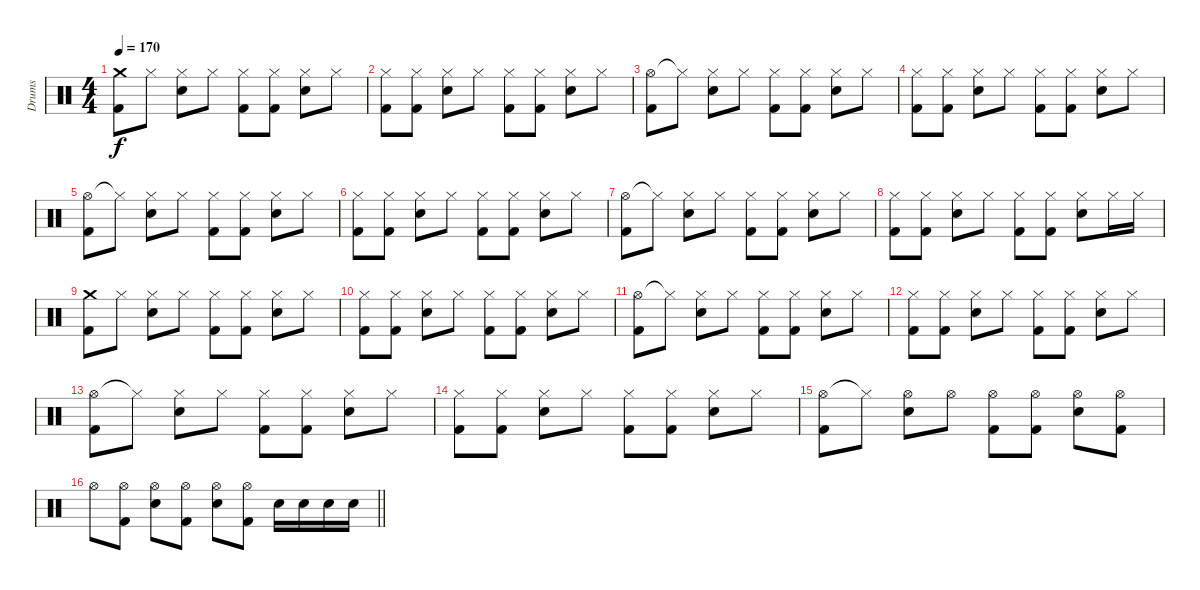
\track ("Drums" "Drums") {instrument percussion}
\staff {score}
\articulation defaults
\ts (4 4)
\tempo 170
\clef neutral
\ks c
("Crash medium (hit)" "Kick (hit) 2").8{dy f} "Hi-Hat (closed)".8 ("Hi-Hat (closed)" "Electric Snare (hit)").8 "Hi-Hat (closed)".8 ("Hi-Hat (closed)" "Kick (hit) 2").8 ("Hi-Hat (closed)" "Kick (hit) 2").8 ("Hi-Hat (closed)" "Electric Snare (hit)").8 "Hi-Hat (closed)".8 |
("Hi-Hat (closed)" "Kick (hit) 2").8 ("Hi-Hat (closed)" "Kick (hit) 2").8 ("Hi-Hat (closed)" "Electric Snare (hit)").8 "Hi-Hat (closed)".8 ("Hi-Hat (closed)" "Kick (hit) 2").8 ("Hi-Hat (closed)" "Kick (hit) 2").8 ("Hi-Hat (closed)" "Electric Snare (hit)").8 "Hi-Hat (closed)".8 |
("Hi-Hat (open)" "Kick (hit) 2").8 "Hi-Hat (closed)"{t}.8 ("Hi-Hat (closed)" "Electric Snare (hit)").8 "Hi-Hat (closed)".8 ("Hi-Hat (closed)" "Kick (hit) 2").8 ("Hi-Hat (closed)" "Kick (hit) 2").8 ("Hi-Hat (closed)" "Electric Snare (hit)").8 "Hi-Hat (closed)".8 |
("Hi-Hat (closed)" "Kick (hit) 2").8 ("Hi-Hat (closed)" "Kick (hit) 2").8 ("Hi-Hat (closed)" "Electric Snare (hit)").8 "Hi-Hat (closed)".8 ("Hi-Hat (closed)" "Kick (hit) 2").8 ("Hi-Hat (closed)" "Kick (hit) 2").8 ("Hi-Hat (closed)" "Electric Snare (hit)").8 "Hi-Hat (closed)".8 |
("Hi-Hat (open)" "Kick (hit) 2").8 "Hi-Hat (closed)"{t}.8 ("Hi-Hat (closed)" "Electric Snare (hit)").8 "Hi-Hat (closed)".8 ("Hi-Hat (closed)" "Kick (hit) 2").8 ("Hi-Hat (closed)" "Kick (hit) 2").8 ("Hi-Hat (closed)" "Electric Snare (hit)").8 "Hi-Hat (closed)".8 |
("Hi-Hat (closed)" "Kick (hit) 2").8 ("Hi-Hat (closed)" "Kick (hit) 2").8 ("Hi-Hat (closed)" "Electric Snare (hit)").8 "Hi-Hat (closed)".8 ("Hi-Hat (closed)" "Kick (hit) 2").8 ("Hi-Hat (closed)" "Kick (hit) 2").8 ("Hi-Hat (closed)" "Electric Snare (hit)").8 "Hi-Hat (closed)".8 |
("Hi-Hat (open)" "Kick (hit) 2").8 "Hi-Hat (closed)"{t}.8 ("Hi-Hat (closed)" "Electric Snare (hit)").8 "Hi-Hat (closed)".8 ("Hi-Hat (closed)" "Kick (hit) 2").8 ("Hi-Hat (closed)" "Kick (hit) 2").8 ("Hi-Hat (closed)" "Electric Snare (hit)").8 "Hi-Hat (closed)".8 |
("Hi-Hat (closed)" "Kick (hit) 2").8 ("Hi-Hat (closed)" "Kick (hit) 2").8 ("Hi-Hat (closed)" "Electric Snare (hit)").8 "Hi-Hat (closed)".8 ("Hi-Hat (closed)" "Kick (hit) 2").8 ("Hi-Hat (closed)" "Kick (hit) 2").8 ("Hi-Hat (closed)" "Electric Snare (hit)").8 "Hi-Hat (closed)".16 "Hi-Hat (closed)".16 |
("Crash medium (hit)" "Kick (hit) 2").8 "Hi-Hat (closed)".8 ("Hi-Hat (closed)" "Electric Snare (hit)").8 "Hi-Hat (closed)".8 ("Hi-Hat (closed)" "Kick (hit) 2").8 ("Hi-Hat (closed)" "Kick (hit) 2").8 ("Hi-Hat (closed)" "Electric Snare (hit)").8 "Hi-Hat (closed)".8 |
("Hi-Hat (closed)" "Kick (hit) 2").8 ("Hi-Hat (closed)" "Kick (hit) 2").8 ("Hi-Hat (closed)" "Electric Snare (hit)").8 "Hi-Hat (closed)".8 ("Hi-Hat (closed)" "Kick (hit) 2").8 ("Hi-Hat (closed)" "Kick (hit) 2").8 ("Hi-Hat (closed)" "Electric Snare (hit)").8 "Hi-Hat (closed)".8 |
("Hi-Hat (open)" "Kick (hit) 2").8 "Hi-Hat (closed)"{t}.8 ("Hi-Hat (closed)" "Electric Snare (hit)").8 "Hi-Hat (closed)".8 ("Hi-Hat (closed)" "Kick (hit) 2").8 ("Hi-Hat (closed)" "Kick (hit) 2").8 ("Hi-Hat (closed)" "Electric Snare (hit)").8 "Hi-Hat (closed)".8 |
("Hi-Hat (closed)" "Kick (hit) 2").8 ("Hi-Hat (closed)" "Kick (hit) 2").8 ("Hi-Hat (closed)" "Electric Snare (hit)").8 "Hi-Hat (closed)".8 ("Hi-Hat (closed)" "Kick (hit) 2").8 ("Hi-Hat (closed)" "Kick (hit) 2").8 ("Hi-Hat (closed)" "Electric Snare (hit)").8 "Hi-Hat (closed)".8 |
("Hi-Hat (open)" "Kick (hit) 2").8 "Hi-Hat (closed)"{t}.8 ("Hi-Hat (closed)" "Electric Snare (hit)").8 "Hi-Hat (closed)".8 ("Hi-Hat (closed)" "Kick (hit) 2").8 ("Hi-Hat (closed)" "Kick (hit) 2").8 ("Hi-Hat (closed)" "Electric Snare (hit)").8 "Hi-Hat (closed)".8 |
("Hi-Hat (closed)" "Kick (hit) 2").8 ("Hi-Hat (closed)" "Kick (hit) 2").8 ("Hi-Hat (closed)" "Electric Snare (hit)").8 "Hi-Hat (closed)".8 ("Hi-Hat (closed)" "Kick (hit) 2").8 ("Hi-Hat (closed)" "Kick (hit) 2").8 ("Hi-Hat (closed)" "Electric Snare (hit)").8 "Hi-Hat (closed)".8 |
("Hi-Hat (open)" "Kick (hit) 2").8 "Hi-Hat (closed)"{t}.8 ("Hi-Hat (open)" "Electric Snare (hit)").8 "Hi-Hat (open)".8 ("Hi-Hat (open)" "Kick (hit) 2").8 ("Hi-Hat (open)" "Kick (hit) 2").8 ("Hi-Hat (open)" "Electric Snare (hit)").8 ("Hi-Hat (open)" "Kick (hit) 2").8 |
\barLineRight lightlight "Hi-Hat (open)".8
("Hi-Hat (open)" "Kick (hit) 2").8 ("Hi-Hat (open)" "Electric Snare (hit)").8 ("Hi-Hat (open)" "Kick (hit) 2").8 ("Hi-Hat (open)" "Electric Snare (hit)").8 ("Hi-Hat (open)" "Kick (hit) 2").8 "Electric Snare (hit)".16 "Electric Snare (hit)".16 "Electric Snare (hit)".16 "Electric Snare (hit)".16
